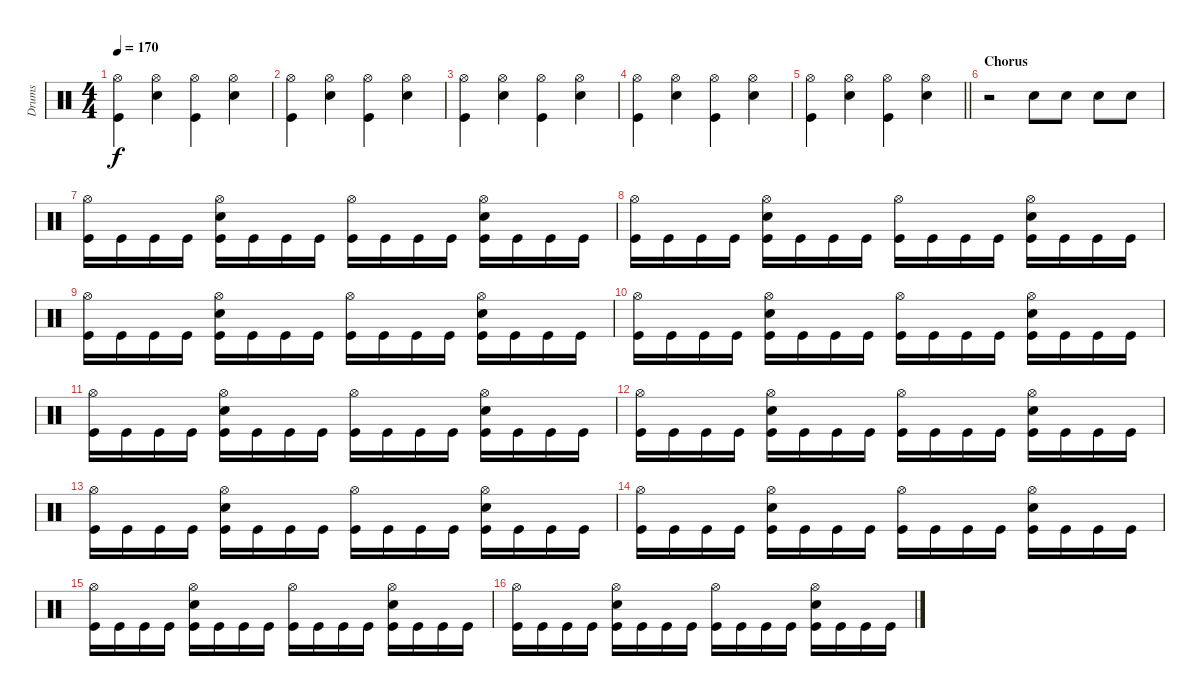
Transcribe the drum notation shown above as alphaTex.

\track ("Drums" "Drums") {instrument percussion}
\staff {score}
\articulation defaults
\ts (4 4)
\tempo 170
\clef neutral
\ks c
("Hi-Hat (open)" "Kick (hit)").4{dy f} ("Hi-Hat (open)" "Snare (hit) 2").4 ("Hi-Hat (open)" "Kick (hit)").4 ("Hi-Hat (open)" "Snare (hit) 2").4 |
("Hi-Hat (open)" "Kick (hit)").4 ("Hi-Hat (open)" "Snare (hit) 2").4 ("Hi-Hat (open)" "Kick (hit)").4 ("Hi-Hat (open)" "Snare (hit) 2").4 |
("Hi-Hat (open)" "Kick (hit)").4 ("Hi-Hat (open)" "Snare (hit) 2").4 ("Hi-Hat (open)" "Kick (hit)").4 ("Hi-Hat (open)" "Snare (hit) 2").4 |
("Hi-Hat (open)" "Kick (hit)").4 ("Hi-Hat (open)" "Snare (hit) 2").4 ("Hi-Hat (open)" "Kick (hit)").4 ("Hi-Hat (open)" "Snare (hit) 2").4 |
\barLineRight lightlight
("Hi-Hat (open)" "Kick (hit)").4 ("Hi-Hat (open)" "Snare (hit) 2").4 ("Hi-Hat (open)" "Kick (hit)").4 ("Hi-Hat (open)" "Snare (hit) 2").4 |
\section ("" "Chorus")
r.2 "Snare (hit) 2".8 "Snare (hit) 2".8 "Snare (hit) 2".8 "Snare (hit) 2".8 |
("Hi-Hat (open)" "Kick (hit)").16 "Kick (hit)".16 "Kick (hit)".16 "Kick (hit)".16 ("Hi-Hat (open)" "Snare (hit) 2" "Kick (hit)").16 "Kick (hit)".16 "Kick (hit)".16 "Kick (hit)".16 ("Hi-Hat (open)" "Kick (hit)").16 "Kick (hit)".16 "Kick (hit)".16 "Kick (hit)".16 ("Hi-Hat (open)" "Snare (hit) 2" "Kick (hit)").16 "Kick (hit)".16 "Kick (hit)".16 "Kick (hit)".16 |
("Hi-Hat (open)" "Kick (hit)").16 "Kick (hit)".16 "Kick (hit)".16 "Kick (hit)".16 ("Hi-Hat (open)" "Snare (hit) 2" "Kick (hit)").16 "Kick (hit)".16 "Kick (hit)".16 "Kick (hit)".16 ("Hi-Hat (open)" "Kick (hit)").16 "Kick (hit)".16 "Kick (hit)".16 "Kick (hit)".16 ("Hi-Hat (open)" "Snare (hit) 2" "Kick (hit)").16 "Kick (hit)".16 "Kick (hit)".16 "Kick (hit)".16 |
("Hi-Hat (open)" "Kick (hit)").16 "Kick (hit)".16 "Kick (hit)".16 "Kick (hit)".16 ("Hi-Hat (open)" "Snare (hit) 2" "Kick (hit)").16 "Kick (hit)".16 "Kick (hit)".16 "Kick (hit)".16 ("Hi-Hat (open)" "Kick (hit)").16 "Kick (hit)".16 "Kick (hit)".16 "Kick (hit)".16 ("Hi-Hat (open)" "Snare (hit) 2" "Kick (hit)").16 "Kick (hit)".16 "Kick (hit)".16 "Kick (hit)".16 |
("Hi-Hat (open)" "Kick (hit)").16 "Kick (hit)".16 "Kick (hit)".16 "Kick (hit)".16 ("Hi-Hat (open)" "Snare (hit) 2" "Kick (hit)").16 "Kick (hit)".16 "Kick (hit)".16 "Kick (hit)".16 ("Hi-Hat (open)" "Kick (hit)").16 "Kick (hit)".16 "Kick (hit)".16 "Kick (hit)".16 ("Hi-Hat (open)" "Snare (hit) 2" "Kick (hit)").16 "Kick (hit)".16 "Kick (hit)".16 "Kick (hit)".16 |
("Hi-Hat (open)" "Kick (hit)").16 "Kick (hit)".16 "Kick (hit)".16 "Kick (hit)".16 ("Hi-Hat (open)" "Snare (hit) 2" "Kick (hit)").16 "Kick (hit)".16 "Kick (hit)".16 "Kick (hit)".16 ("Hi-Hat (open)" "Kick (hit)").16 "Kick (hit)".16 "Kick (hit)".16 "Kick (hit)".16 ("Hi-Hat (open)" "Snare (hit) 2" "Kick (hit)").16 "Kick (hit)".16 "Kick (hit)".16 "Kick (hit)".16 |
("Hi-Hat (open)" "Kick (hit)").16 "Kick (hit)".16 "Kick (hit)".16 "Kick (hit)".16 ("Hi-Hat (open)" "Snare (hit) 2" "Kick (hit)").16 "Kick (hit)".16 "Kick (hit)".16 "Kick (hit)".16 ("Hi-Hat (open)" "Kick (hit)").16 "Kick (hit)".16 "Kick (hit)".16 "Kick (hit)".16 ("Hi-Hat (open)" "Snare (hit) 2" "Kick (hit)").16 "Kick (hit)".16 "Kick (hit)".16 "Kick (hit)".16 |
("Hi-Hat (open)" "Kick (hit)").16 "Kick (hit)".16 "Kick (hit)".16 "Kick (hit)".16 ("Hi-Hat (open)" "Snare (hit) 2" "Kick (hit)").16 "Kick (hit)".16 "Kick (hit)".16 "Kick (hit)".16 ("Hi-Hat (open)" "Kick (hit)").16 "Kick (hit)".16 "Kick (hit)".16 "Kick (hit)".16 ("Hi-Hat (open)" "Snare (hit) 2" "Kick (hit)").16 "Kick (hit)".16 "Kick (hit)".16 "Kick (hit)".16 |
("Hi-Hat (open)" "Kick (hit)").16 "Kick (hit)".16 "Kick (hit)".16 "Kick (hit)".16 ("Hi-Hat (open)" "Snare (hit) 2" "Kick (hit)").16 "Kick (hit)".16 "Kick (hit)".16 "Kick (hit)".16 ("Hi-Hat (open)" "Kick (hit)").16 "Kick (hit)".16 "Kick (hit)".16 "Kick (hit)".16 ("Hi-Hat (open)" "Snare (hit) 2" "Kick (hit)").16 "Kick (hit)".16 "Kick (hit)".16 "Kick (hit)".16 |
("Hi-Hat (open)" "Kick (hit)").16 "Kick (hit)".16 "Kick (hit)".16 "Kick (hit)".16 ("Hi-Hat (open)" "Snare (hit) 2" "Kick (hit)").16 "Kick (hit)".16 "Kick (hit)".16 "Kick (hit)".16 ("Hi-Hat (open)" "Kick (hit)").16 "Kick (hit)".16 "Kick (hit)".16 "Kick (hit)".16 ("Hi-Hat (open)" "Snare (hit) 2" "Kick (hit)").16 "Kick (hit)".16 "Kick (hit)".16 "Kick (hit)".16 |
("Hi-Hat (open)" "Kick (hit)").16 "Kick (hit)".16 "Kick (hit)".16 "Kick (hit)".16 ("Hi-Hat (open)" "Snare (hit) 2" "Kick (hit)").16 "Kick (hit)".16 "Kick (hit)".16 "Kick (hit)".16 ("Hi-Hat (open)" "Kick (hit)").16 "Kick (hit)".16 "Kick (hit)".16 "Kick (hit)".16 ("Hi-Hat (open)" "Snare (hit) 2" "Kick (hit)").16 "Kick (hit)".16 "Kick (hit)".16 "Kick (hit)".16
